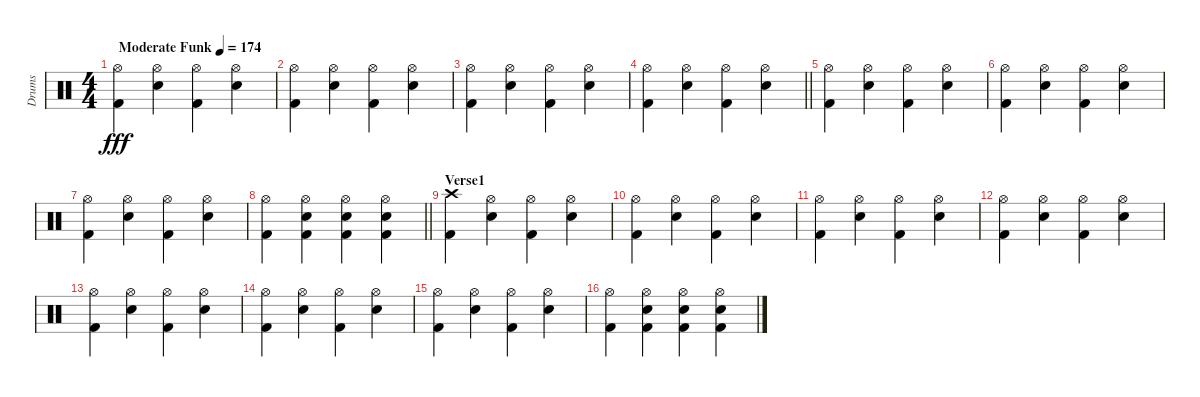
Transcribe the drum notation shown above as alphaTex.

\track ("Drums" "Drums") {instrument percussion}
\staff {score}
\articulation defaults
\ts (4 4)
\section ("" "")
\tempo (174 "Moderate Funk")
\clef neutral
\ks c
("Hi-Hat (open)" "Kick (hit) 2").4{dy fff} ("Hi-Hat (open)" "Electric Snare (hit)").4 ("Hi-Hat (open)" "Kick (hit) 2").4 ("Hi-Hat (open)" "Electric Snare (hit)").4 |
("Hi-Hat (open)" "Kick (hit) 2").4 ("Hi-Hat (open)" "Electric Snare (hit)").4 ("Hi-Hat (open)" "Kick (hit) 2").4 ("Hi-Hat (open)" "Electric Snare (hit)").4 |
("Hi-Hat (open)" "Kick (hit) 2").4 ("Hi-Hat (open)" "Electric Snare (hit)").4 ("Hi-Hat (open)" "Kick (hit) 2").4 ("Hi-Hat (open)" "Electric Snare (hit)").4 |
\barLineRight lightlight
("Hi-Hat (open)" "Kick (hit) 2").4 ("Hi-Hat (open)" "Electric Snare (hit)").4 ("Hi-Hat (open)" "Kick (hit) 2").4 ("Hi-Hat (open)" "Electric Snare (hit)").4 |
("Hi-Hat (open)" "Kick (hit) 2").4 ("Hi-Hat (open)" "Electric Snare (hit)").4 ("Hi-Hat (open)" "Kick (hit) 2").4 ("Hi-Hat (open)" "Electric Snare (hit)").4 |
("Hi-Hat (open)" "Kick (hit) 2").4 ("Hi-Hat (open)" "Electric Snare (hit)").4 ("Hi-Hat (open)" "Kick (hit) 2").4 ("Hi-Hat (open)" "Electric Snare (hit)").4 |
("Hi-Hat (open)" "Kick (hit) 2").4 ("Hi-Hat (open)" "Electric Snare (hit)").4 ("Hi-Hat (open)" "Kick (hit) 2").4 ("Hi-Hat (open)" "Electric Snare (hit)").4 |
\barLineRight lightlight
("Hi-Hat (open)" "Kick (hit) 2").4 ("Hi-Hat (open)" "Electric Snare (hit)" "Kick (hit) 2").4 ("Hi-Hat (open)" "Electric Snare (hit)" "Kick (hit) 2").4 ("Hi-Hat (open)" "Electric Snare (hit)" "Kick (hit) 2").4 |
\section ("" "Verse1")
("Crash high (hit)" "Kick (hit) 2").4 ("Hi-Hat (open)" "Electric Snare (hit)").4 ("Hi-Hat (open)" "Kick (hit) 2").4 ("Hi-Hat (open)" "Electric Snare (hit)").4 |
("Hi-Hat (open)" "Kick (hit) 2").4 ("Hi-Hat (open)" "Electric Snare (hit)").4 ("Hi-Hat (open)" "Kick (hit) 2").4 ("Hi-Hat (open)" "Electric Snare (hit)").4 |
("Hi-Hat (open)" "Kick (hit) 2").4 ("Hi-Hat (open)" "Electric Snare (hit)").4 ("Hi-Hat (open)" "Kick (hit) 2").4 ("Hi-Hat (open)" "Electric Snare (hit)").4 |
("Hi-Hat (open)" "Kick (hit) 2").4 ("Hi-Hat (open)" "Electric Snare (hit)").4 ("Hi-Hat (open)" "Kick (hit) 2").4 ("Hi-Hat (open)" "Electric Snare (hit)").4 |
("Hi-Hat (open)" "Kick (hit) 2").4 ("Hi-Hat (open)" "Electric Snare (hit)").4 ("Hi-Hat (open)" "Kick (hit) 2").4 ("Hi-Hat (open)" "Electric Snare (hit)").4 |
("Hi-Hat (open)" "Kick (hit) 2").4 ("Hi-Hat (open)" "Electric Snare (hit)").4 ("Hi-Hat (open)" "Kick (hit) 2").4 ("Hi-Hat (open)" "Electric Snare (hit)").4 |
("Hi-Hat (open)" "Kick (hit) 2").4 ("Hi-Hat (open)" "Electric Snare (hit)").4 ("Hi-Hat (open)" "Kick (hit) 2").4 ("Hi-Hat (open)" "Electric Snare (hit)").4 |
("Hi-Hat (open)" "Kick (hit) 2").4 ("Hi-Hat (open)" "Electric Snare (hit)" "Kick (hit) 2").4 ("Hi-Hat (open)" "Electric Snare (hit)" "Kick (hit) 2").4 ("Hi-Hat (open)" "Electric Snare (hit)" "Kick (hit) 2").4
